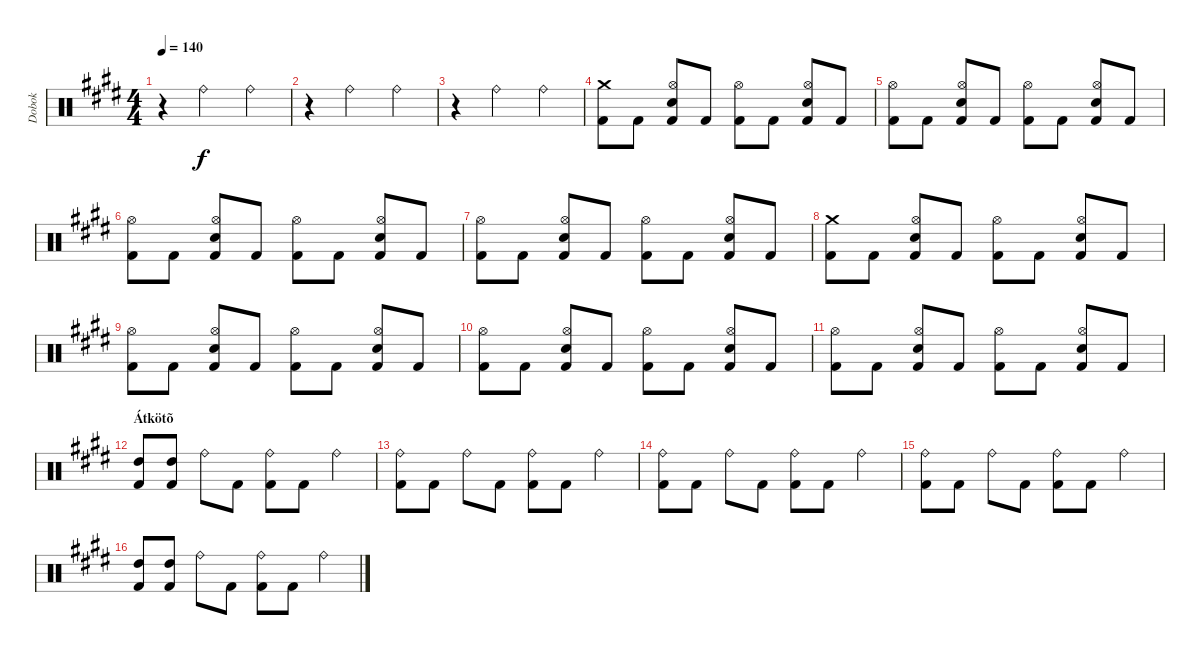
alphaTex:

\track ("Dobok" "Dobok") {instrument percussion}
\staff {score}
\articulation defaults
\ts (4 4)
\tempo 140
\clef neutral
\ks c#minor
r.4{dy f} "Ride (bell)".2 "Ride (bell)".4 |
r.4 "Ride (bell)".2 "Ride (bell)".4 |
r.4 "Ride (bell)".2 "Ride (bell)".4 |
("Crash medium (hit)" "Kick (hit) 2").8 "Kick (hit) 2".8 ("Hi-Hat (open)" "Snare (hit) 2" "Kick (hit) 2").8 "Kick (hit) 2".8 ("Hi-Hat (open)" "Kick (hit) 2").8 "Kick (hit) 2".8 ("Hi-Hat (open)" "Snare (hit) 2" "Kick (hit) 2").8 "Kick (hit) 2".8 |
("Hi-Hat (open)" "Kick (hit) 2").8 "Kick (hit) 2".8 ("Hi-Hat (open)" "Snare (hit) 2" "Kick (hit) 2").8 "Kick (hit) 2".8 ("Hi-Hat (open)" "Kick (hit) 2").8 "Kick (hit) 2".8 ("Hi-Hat (open)" "Snare (hit) 2" "Kick (hit) 2").8 "Kick (hit) 2".8 |
("Hi-Hat (open)" "Kick (hit) 2").8 "Kick (hit) 2".8 ("Hi-Hat (open)" "Snare (hit) 2" "Kick (hit) 2").8 "Kick (hit) 2".8 ("Hi-Hat (open)" "Kick (hit) 2").8 "Kick (hit) 2".8 ("Hi-Hat (open)" "Snare (hit) 2" "Kick (hit) 2").8 "Kick (hit) 2".8 |
("Hi-Hat (open)" "Kick (hit) 2").8 "Kick (hit) 2".8 ("Hi-Hat (open)" "Snare (hit) 2" "Kick (hit) 2").8 "Kick (hit) 2".8 ("Hi-Hat (open)" "Kick (hit) 2").8 "Kick (hit) 2".8 ("Hi-Hat (open)" "Snare (hit) 2" "Kick (hit) 2").8 "Kick (hit) 2".8 |
("Crash medium (hit)" "Kick (hit) 2").8 "Kick (hit) 2".8 ("Hi-Hat (open)" "Snare (hit) 2" "Kick (hit) 2").8 "Kick (hit) 2".8 ("Hi-Hat (open)" "Kick (hit) 2").8 "Kick (hit) 2".8 ("Hi-Hat (open)" "Snare (hit) 2" "Kick (hit) 2").8 "Kick (hit) 2".8 |
("Hi-Hat (open)" "Kick (hit) 2").8 "Kick (hit) 2".8 ("Hi-Hat (open)" "Snare (hit) 2" "Kick (hit) 2").8 "Kick (hit) 2".8 ("Hi-Hat (open)" "Kick (hit) 2").8 "Kick (hit) 2".8 ("Hi-Hat (open)" "Snare (hit) 2" "Kick (hit) 2").8 "Kick (hit) 2".8 |
("Hi-Hat (open)" "Kick (hit) 2").8 "Kick (hit) 2".8 ("Hi-Hat (open)" "Snare (hit) 2" "Kick (hit) 2").8 "Kick (hit) 2".8 ("Hi-Hat (open)" "Kick (hit) 2").8 "Kick (hit) 2".8 ("Hi-Hat (open)" "Snare (hit) 2" "Kick (hit) 2").8 "Kick (hit) 2".8 |
("Hi-Hat (open)" "Kick (hit) 2").8 "Kick (hit) 2".8 ("Hi-Hat (open)" "Snare (hit) 2" "Kick (hit) 2").8 "Kick (hit) 2".8 ("Hi-Hat (open)" "Kick (hit) 2").8 "Kick (hit) 2".8 ("Hi-Hat (open)" "Snare (hit) 2" "Kick (hit) 2").8 "Kick (hit) 2".8 |
\section ("" "Átkötõ")
("High Tom (hit)" "Kick (hit) 2").8 ("High Tom (hit)" "Kick (hit) 2").8 "Ride (bell)".8 "Kick (hit) 2".8 ("Ride (bell)" "Kick (hit) 2").8 "Kick (hit) 2".8 "Ride (bell)".4 |
("Ride (bell)" "Kick (hit) 2").8 "Kick (hit) 2".8 "Ride (bell)".8 "Kick (hit) 2".8 ("Ride (bell)" "Kick (hit) 2").8 "Kick (hit) 2".8 "Ride (bell)".4 |
("Ride (bell)" "Kick (hit) 2").8 "Kick (hit) 2".8 "Ride (bell)".8 "Kick (hit) 2".8 ("Ride (bell)" "Kick (hit) 2").8 "Kick (hit) 2".8 "Ride (bell)".4 |
("Ride (bell)" "Kick (hit) 2").8 "Kick (hit) 2".8 "Ride (bell)".8 "Kick (hit) 2".8 ("Ride (bell)" "Kick (hit) 2").8 "Kick (hit) 2".8 "Ride (bell)".4 |
("High Tom (hit)" "Kick (hit) 2").8 ("High Tom (hit)" "Kick (hit) 2").8 "Ride (bell)".8 "Kick (hit) 2".8 ("Ride (bell)" "Kick (hit) 2").8 "Kick (hit) 2".8 "Ride (bell)".4
